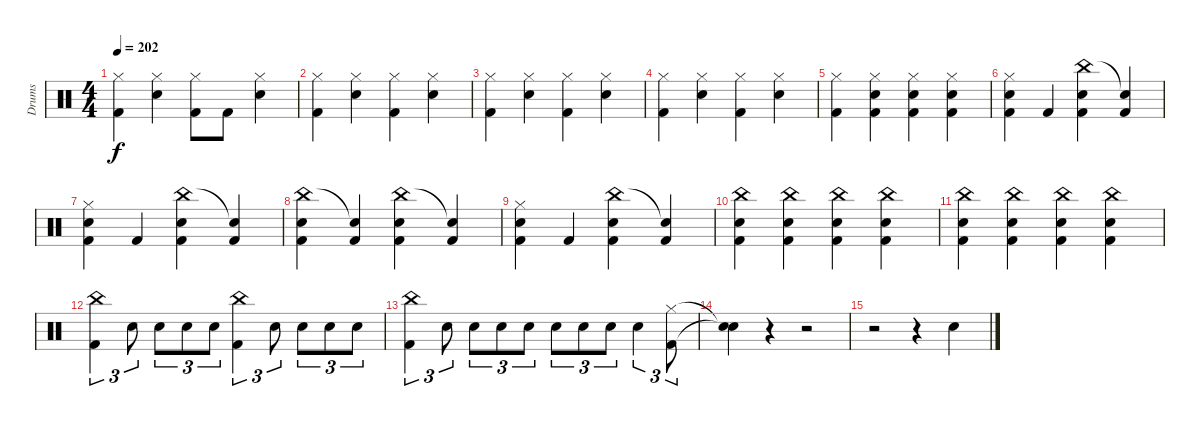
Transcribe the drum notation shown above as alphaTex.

\track ("Drums" "Drums") {instrument percussion}
\staff {score}
\articulation defaults
\ts (4 4)
\tempo 202
\clef neutral
\ks c
("Hi-Hat (closed)" "Kick (hit) 2").4{dy f} ("Hi-Hat (closed)" "Snare (hit) 2").4 ("Hi-Hat (closed)" "Kick (hit) 2").8 "Kick (hit) 2".8 ("Hi-Hat (closed)" "Snare (hit) 2").4 |
("Hi-Hat (closed)" "Kick (hit) 2").4 ("Hi-Hat (closed)" "Snare (hit) 2").4 ("Hi-Hat (closed)" "Kick (hit) 2").4 ("Hi-Hat (closed)" "Snare (hit) 2").4 |
("Hi-Hat (closed)" "Kick (hit) 2").4 ("Hi-Hat (closed)" "Snare (hit) 2").4 ("Hi-Hat (closed)" "Kick (hit) 2").4 ("Hi-Hat (closed)" "Snare (hit) 2").4 |
("Hi-Hat (closed)" "Kick (hit) 2").4 ("Hi-Hat (closed)" "Snare (hit) 2").4 ("Hi-Hat (closed)" "Kick (hit) 2").4 ("Hi-Hat (closed)" "Snare (hit) 2").4 |
("Hi-Hat (closed)" "Kick (hit) 2").4 ("Hi-Hat (closed)" "Snare (hit) 2" "Kick (hit) 2").4 ("Hi-Hat (closed)" "Snare (hit) 2" "Kick (hit) 2").4 ("Hi-Hat (closed)" "Snare (hit) 2" "Kick (hit) 2").4 |
("Hi-Hat (closed)" "Snare (hit) 2" "Kick (hit) 2").4 "Kick (hit) 2".4 ("China (hit)" "Snare (hit) 2" "Kick (hit) 2").4 ("Snare (hit)"{t} "Kick (hit) 2").4 |
("Hi-Hat (closed)" "Snare (hit) 2" "Kick (hit) 2").4 "Kick (hit) 2".4 ("China (hit)" "Snare (hit) 2" "Kick (hit) 2").4 ("Snare (hit)"{t} "Kick (hit) 2").4 |
("China (hit)" "Snare (hit) 2" "Kick (hit) 2").4 ("Snare (hit)"{t} "Kick (hit) 2").4 ("China (hit)" "Snare (hit) 2" "Kick (hit) 2").4 ("Snare (hit)"{t} "Kick (hit) 2").4 |
("Hi-Hat (closed)" "Snare (hit) 2" "Kick (hit) 2").4 "Kick (hit) 2".4 ("China (hit)" "Snare (hit) 2" "Kick (hit) 2").4 ("Snare (hit)"{t} "Kick (hit) 2").4 |
("China (hit)" "Snare (hit) 2" "Kick (hit) 2").4 ("China (hit)" "Snare (hit) 2" "Kick (hit) 2").4 ("China (hit)" "Snare (hit) 2" "Kick (hit) 2").4 ("China (hit)" "Snare (hit) 2" "Kick (hit) 2").4 |
("China (hit)" "Snare (hit) 2" "Kick (hit) 2").4 ("China (hit)" "Snare (hit) 2" "Kick (hit) 2").4 ("China (hit)" "Snare (hit) 2" "Kick (hit) 2").4 ("China (hit)" "Snare (hit) 2" "Kick (hit) 2").4 |
("China (hit)" "Kick (hit) 2").4{tu (3 2)} "Snare (hit) 2".8{tu (3 2)} "Snare (hit) 2".8{tu (3 2)} "Snare (hit) 2".8{tu (3 2)} "Snare (hit) 2".8{tu (3 2)} ("China (hit)" "Kick (hit) 2").4{tu (3 2)} "Snare (hit) 2".8{tu (3 2)} "Snare (hit) 2".8{tu (3 2)} "Snare (hit) 2".8{tu (3 2)} "Snare (hit) 2".8{tu (3 2)} |
("China (hit)" "Kick (hit) 2").4{tu (3 2)} "Snare (hit) 2".8{tu (3 2)} "Snare (hit) 2".8{tu (3 2)} "Snare (hit) 2".8{tu (3 2)} "Snare (hit) 2".8{tu (3 2)} "Snare (hit) 2".8{tu (3 2)} "Snare (hit) 2".8{tu (3 2)} "Snare (hit) 2".8{tu (3 2)} "Snare (hit) 2".4{tu (3 2)} ("Hi-Hat (closed)" "Kick (hit) 2").8{tu (3 2)} |
("Snare (hit)"{t} "Snare (hit)"{t}).4 r.4 r.2 |
r.2 r.4 "Snare (hit) 2".4
